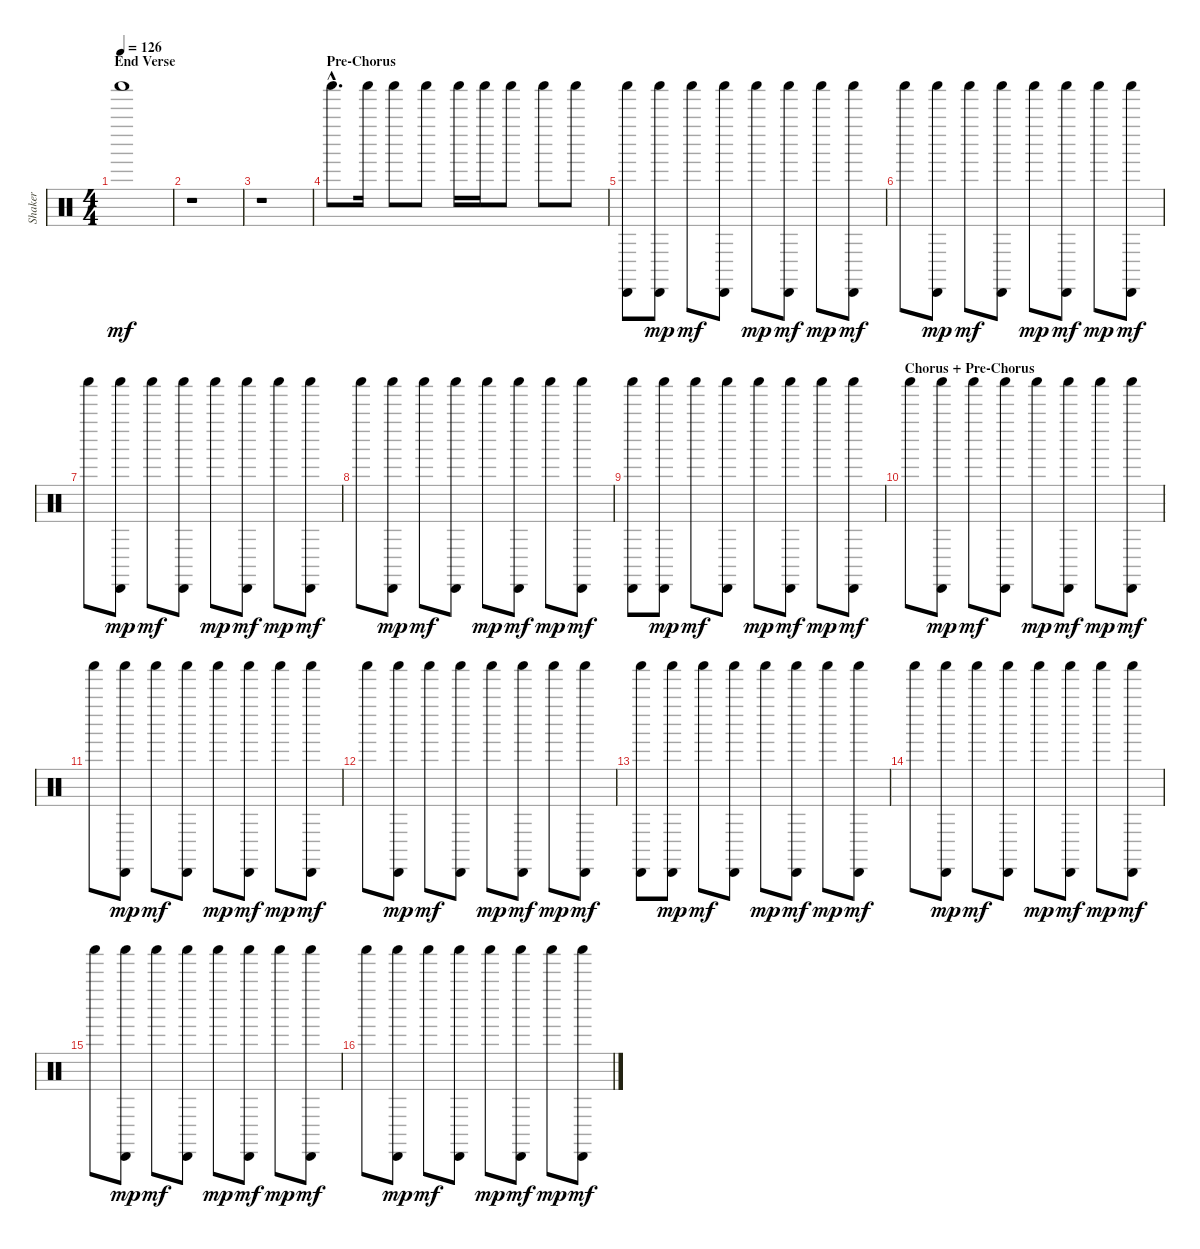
\track ("Shaker" "Shaker") {instrument percussion}
\staff {score}
\articulation defaults
\ts (4 4)
\section ("" "End Verse")
\tempo 126
\clef neutral
\ks c "Shaker (hit)".1{dy mf}
|
r.1 |
r.1 |
\section ("" "Pre-Chorus")
"Shaker (hit)"{hac}.8{d} "Shaker (hit)".16 "Shaker (hit)".8 "Shaker (hit)".8 "Shaker (hit)".16 "Shaker (hit)".16 "Shaker (hit)".8 "Shaker (hit)".8 "Shaker (hit)".8 |
("Cabasa (hit)" "Shaker (hit)").8 ("Cabasa (hit)" "Shaker (hit)").8{dy mp} "Shaker (hit)".8{dy mf} ("Cabasa (hit)" "Shaker (hit)").8 "Shaker (hit)".8{dy mp} ("Cabasa (hit)" "Shaker (hit)").8{dy mf} "Shaker (hit)".8{dy mp} ("Cabasa (hit)" "Shaker (hit)").8{dy mf} |
"Shaker (hit)".8 ("Cabasa (hit)" "Shaker (hit)").8{dy mp} "Shaker (hit)".8{dy mf} ("Cabasa (hit)" "Shaker (hit)").8 "Shaker (hit)".8{dy mp} ("Cabasa (hit)" "Shaker (hit)").8{dy mf} "Shaker (hit)".8{dy mp} ("Cabasa (hit)" "Shaker (hit)").8{dy mf} |
"Shaker (hit)".8 ("Cabasa (hit)" "Shaker (hit)").8{dy mp} "Shaker (hit)".8{dy mf} ("Cabasa (hit)" "Shaker (hit)").8 "Shaker (hit)".8{dy mp} ("Cabasa (hit)" "Shaker (hit)").8{dy mf} "Shaker (hit)".8{dy mp} ("Cabasa (hit)" "Shaker (hit)").8{dy mf} |
"Shaker (hit)".8 ("Cabasa (hit)" "Shaker (hit)").8{dy mp} "Shaker (hit)".8{dy mf} ("Cabasa (hit)" "Shaker (hit)").8 "Shaker (hit)".8{dy mp} ("Cabasa (hit)" "Shaker (hit)").8{dy mf} "Shaker (hit)".8{dy mp} ("Cabasa (hit)" "Shaker (hit)").8{dy mf} |
("Cabasa (hit)" "Shaker (hit)").8 ("Cabasa (hit)" "Shaker (hit)").8{dy mp} "Shaker (hit)".8{dy mf} ("Cabasa (hit)" "Shaker (hit)").8 "Shaker (hit)".8{dy mp} ("Cabasa (hit)" "Shaker (hit)").8{dy mf} "Shaker (hit)".8{dy mp} ("Cabasa (hit)" "Shaker (hit)").8{dy mf} |
\section ("" "Chorus + Pre-Chorus")
"Shaker (hit)".8 ("Cabasa (hit)" "Shaker (hit)").8{dy mp} "Shaker (hit)".8{dy mf} ("Cabasa (hit)" "Shaker (hit)").8 "Shaker (hit)".8{dy mp} ("Cabasa (hit)" "Shaker (hit)").8{dy mf} "Shaker (hit)".8{dy mp} ("Cabasa (hit)" "Shaker (hit)").8{dy mf} |
"Shaker (hit)".8 ("Cabasa (hit)" "Shaker (hit)").8{dy mp} "Shaker (hit)".8{dy mf} ("Cabasa (hit)" "Shaker (hit)").8 "Shaker (hit)".8{dy mp} ("Cabasa (hit)" "Shaker (hit)").8{dy mf} "Shaker (hit)".8{dy mp} ("Cabasa (hit)" "Shaker (hit)").8{dy mf} |
"Shaker (hit)".8 ("Cabasa (hit)" "Shaker (hit)").8{dy mp} "Shaker (hit)".8{dy mf} ("Cabasa (hit)" "Shaker (hit)").8 "Shaker (hit)".8{dy mp} ("Cabasa (hit)" "Shaker (hit)").8{dy mf} "Shaker (hit)".8{dy mp} ("Cabasa (hit)" "Shaker (hit)").8{dy mf} |
("Cabasa (hit)" "Shaker (hit)").8 ("Cabasa (hit)" "Shaker (hit)").8{dy mp} "Shaker (hit)".8{dy mf} ("Cabasa (hit)" "Shaker (hit)").8 "Shaker (hit)".8{dy mp} ("Cabasa (hit)" "Shaker (hit)").8{dy mf} "Shaker (hit)".8{dy mp} ("Cabasa (hit)" "Shaker (hit)").8{dy mf} |
"Shaker (hit)".8 ("Cabasa (hit)" "Shaker (hit)").8{dy mp} "Shaker (hit)".8{dy mf} ("Cabasa (hit)" "Shaker (hit)").8 "Shaker (hit)".8{dy mp} ("Cabasa (hit)" "Shaker (hit)").8{dy mf} "Shaker (hit)".8{dy mp} ("Cabasa (hit)" "Shaker (hit)").8{dy mf} |
"Shaker (hit)".8 ("Cabasa (hit)" "Shaker (hit)").8{dy mp} "Shaker (hit)".8{dy mf} ("Cabasa (hit)" "Shaker (hit)").8 "Shaker (hit)".8{dy mp} ("Cabasa (hit)" "Shaker (hit)").8{dy mf} "Shaker (hit)".8{dy mp} ("Cabasa (hit)" "Shaker (hit)").8{dy mf} |
"Shaker (hit)".8 ("Cabasa (hit)" "Shaker (hit)").8{dy mp} "Shaker (hit)".8{dy mf} ("Cabasa (hit)" "Shaker (hit)").8 "Shaker (hit)".8{dy mp} ("Cabasa (hit)" "Shaker (hit)").8{dy mf} "Shaker (hit)".8{dy mp} ("Cabasa (hit)" "Shaker (hit)").8{dy mf}
